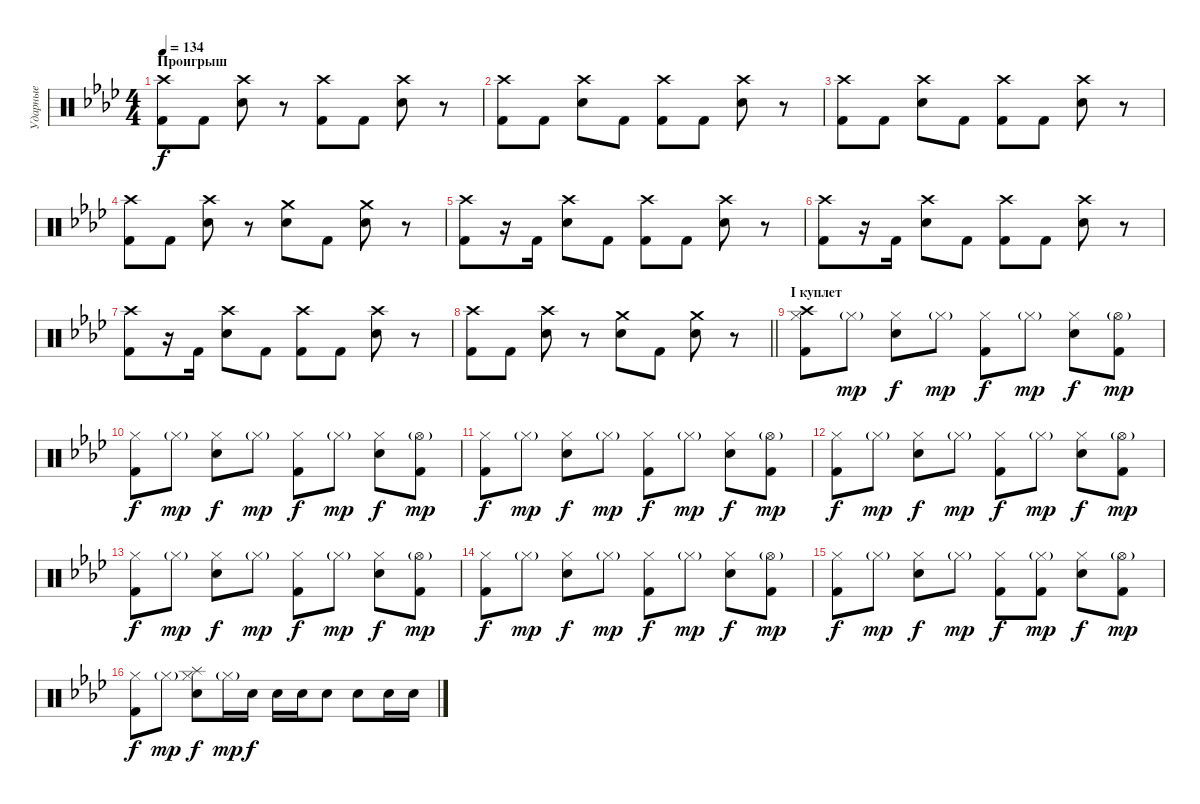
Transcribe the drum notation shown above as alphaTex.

\track ("Ударные" "Ударные") {instrument percussion}
\staff {score}
\articulation defaults
\ts (4 4)
\section ("" "Проигрыш ")
\tempo 134
\clef neutral
\ks fminor
("Crash high (hit)" "Kick (hit) 2").8{dy f} "Kick (hit) 2".8 ("Crash high (hit)" "Electric Snare (hit)").8 r.8 ("Crash high (hit)" "Kick (hit) 2").8 "Kick (hit) 2".8 ("Crash high (hit)" "Electric Snare (hit)").8 r.8 |
("Crash high (hit)" "Kick (hit) 2").8 "Kick (hit) 2".8 ("Crash high (hit)" "Electric Snare (hit)").8 "Kick (hit) 2".8 ("Crash high (hit)" "Kick (hit) 2").8 "Kick (hit) 2".8 ("Crash high (hit)" "Electric Snare (hit)").8 r.8 |
("Crash high (hit)" "Kick (hit) 2").8 "Kick (hit) 2".8 ("Crash high (hit)" "Electric Snare (hit)").8 "Kick (hit) 2".8 ("Crash high (hit)" "Kick (hit) 2").8 "Kick (hit) 2".8 ("Crash high (hit)" "Electric Snare (hit)").8 r.8 |
("Crash high (hit)" "Kick (hit) 2").8 "Kick (hit) 2".8 ("Crash high (hit)" "Electric Snare (hit)").8 r.8 ("Crash medium (hit)" "Electric Snare (hit)").8 "Kick (hit) 2".8 ("Crash medium (hit)" "Electric Snare (hit)").8 r.8 |
("Crash high (hit)" "Kick (hit) 2").8 r.16 "Kick (hit) 2".16 ("Crash high (hit)" "Electric Snare (hit)").8 "Kick (hit) 2".8 ("Crash high (hit)" "Kick (hit) 2").8 "Kick (hit) 2".8 ("Crash high (hit)" "Electric Snare (hit)").8 r.8 |
("Crash high (hit)" "Kick (hit) 2").8 r.16 "Kick (hit) 2".16 ("Crash high (hit)" "Electric Snare (hit)").8 "Kick (hit) 2".8 ("Crash high (hit)" "Kick (hit) 2").8 "Kick (hit) 2".8 ("Crash high (hit)" "Electric Snare (hit)").8 r.8 |
("Crash high (hit)" "Kick (hit) 2").8 r.16 "Kick (hit) 2".16 ("Crash high (hit)" "Electric Snare (hit)").8 "Kick (hit) 2".8 ("Crash high (hit)" "Kick (hit) 2").8 "Kick (hit) 2".8 ("Crash high (hit)" "Electric Snare (hit)").8 r.8 |
\barLineRight lightlight
("Crash high (hit)" "Kick (hit) 2").8 "Kick (hit) 2".8 ("Crash high (hit)" "Electric Snare (hit)").8 r.8 ("Crash medium (hit)" "Electric Snare (hit)").8 "Kick (hit) 2".8 ("Crash medium (hit)" "Electric Snare (hit)").8 r.8 |
\section ("" "I куплет")
("Crash high (hit)" "Hi-Hat (closed)" "Kick (hit) 2").8 "Hi-Hat (closed)"{g}.8{dy mp} ("Hi-Hat (closed)" "Electric Snare (hit)").8{dy f} "Hi-Hat (closed)"{g}.8{dy mp} ("Hi-Hat (closed)" "Kick (hit) 2").8{dy f} "Hi-Hat (closed)"{g}.8{dy mp} ("Hi-Hat (closed)" "Electric Snare (hit)").8{dy f} ("Hi-Hat (open)"{g} "Kick (hit) 2").8{dy mp} |
("Hi-Hat (closed)" "Kick (hit) 2").8{dy f} "Hi-Hat (closed)"{g}.8{dy mp} ("Hi-Hat (closed)" "Electric Snare (hit)").8{dy f} "Hi-Hat (closed)"{g}.8{dy mp} ("Hi-Hat (closed)" "Kick (hit) 2").8{dy f} "Hi-Hat (closed)"{g}.8{dy mp} ("Hi-Hat (closed)" "Electric Snare (hit)").8{dy f} ("Hi-Hat (open)"{g} "Kick (hit) 2").8{dy mp} |
("Hi-Hat (closed)" "Kick (hit) 2").8{dy f} "Hi-Hat (closed)"{g}.8{dy mp} ("Hi-Hat (closed)" "Electric Snare (hit)").8{dy f} "Hi-Hat (closed)"{g}.8{dy mp} ("Hi-Hat (closed)" "Kick (hit) 2").8{dy f} "Hi-Hat (closed)"{g}.8{dy mp} ("Hi-Hat (closed)" "Electric Snare (hit)").8{dy f} ("Hi-Hat (open)"{g} "Kick (hit) 2").8{dy mp} |
("Hi-Hat (closed)" "Kick (hit) 2").8{dy f} "Hi-Hat (closed)"{g}.8{dy mp} ("Hi-Hat (closed)" "Electric Snare (hit)").8{dy f} "Hi-Hat (closed)"{g}.8{dy mp} ("Hi-Hat (closed)" "Kick (hit) 2").8{dy f} "Hi-Hat (closed)"{g}.8{dy mp} ("Hi-Hat (closed)" "Electric Snare (hit)").8{dy f} ("Hi-Hat (open)"{g} "Kick (hit) 2").8{dy mp} |
("Hi-Hat (closed)" "Kick (hit) 2").8{dy f} "Hi-Hat (closed)"{g}.8{dy mp} ("Hi-Hat (closed)" "Electric Snare (hit)").8{dy f} "Hi-Hat (closed)"{g}.8{dy mp} ("Hi-Hat (closed)" "Kick (hit) 2").8{dy f} "Hi-Hat (closed)"{g}.8{dy mp} ("Hi-Hat (closed)" "Electric Snare (hit)").8{dy f} ("Hi-Hat (open)"{g} "Kick (hit) 2").8{dy mp} |
("Hi-Hat (closed)" "Kick (hit) 2").8{dy f} "Hi-Hat (closed)"{g}.8{dy mp} ("Hi-Hat (closed)" "Electric Snare (hit)").8{dy f} "Hi-Hat (closed)"{g}.8{dy mp} ("Hi-Hat (closed)" "Kick (hit) 2").8{dy f} "Hi-Hat (closed)"{g}.8{dy mp} ("Hi-Hat (closed)" "Electric Snare (hit)").8{dy f} ("Hi-Hat (open)"{g} "Kick (hit) 2").8{dy mp} |
("Hi-Hat (closed)" "Kick (hit) 2").8{dy f} "Hi-Hat (closed)"{g}.8{dy mp} ("Hi-Hat (closed)" "Electric Snare (hit)").8{dy f} "Hi-Hat (closed)"{g}.8{dy mp} ("Hi-Hat (closed)" "Kick (hit) 2").8{dy f} ("Hi-Hat (closed)"{g} "Kick (hit) 2").8{dy mp} ("Hi-Hat (closed)" "Electric Snare (hit)").8{dy f} ("Hi-Hat (open)"{g} "Kick (hit) 2").8{dy mp} |
("Hi-Hat (closed)" "Kick (hit) 2").8{dy f} "Hi-Hat (closed)"{g}.8{dy mp} ("Splash (hit)" "Hi-Hat (closed)" "Electric Snare (hit)").8{dy f} "Hi-Hat (closed)"{g}.16{dy mp} "Electric Snare (hit)".16{dy f} "Electric Snare (hit)".16 "Electric Snare (hit)".16 "Electric Snare (hit)".8 "Electric Snare (hit)".8 "Electric Snare (hit)".16 "Electric Snare (hit)".16
